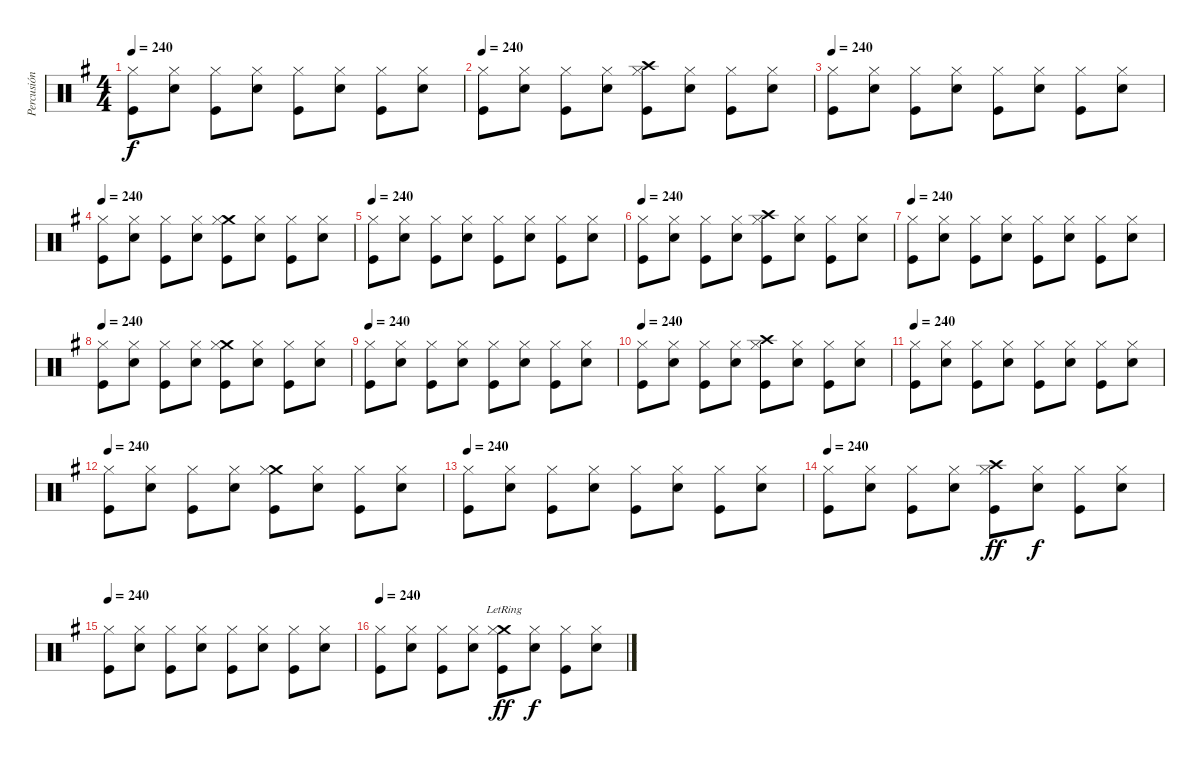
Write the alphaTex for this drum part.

\track ("Percusión" "Percusión") {instrument percussion}
\staff {score}
\articulation defaults
\ts (4 4)
\tempo 240
\clef neutral
\ks g
("Hi-Hat (closed)" "Kick (hit)").8{dy f} ("Hi-Hat (closed)" "Snare (hit) 2").8 ("Hi-Hat (closed)" "Kick (hit)").8 ("Hi-Hat (closed)" "Snare (hit) 2").8 ("Hi-Hat (closed)" "Kick (hit)").8 ("Hi-Hat (closed)" "Snare (hit) 2").8 ("Hi-Hat (closed)" "Kick (hit)").8 ("Hi-Hat (closed)" "Snare (hit) 2").8 |
\tempo 240
("Hi-Hat (closed)" "Kick (hit)").8 ("Hi-Hat (closed)" "Snare (hit) 2").8 ("Hi-Hat (closed)" "Kick (hit)").8 ("Hi-Hat (closed)" "Snare (hit) 2").8 ("Crash high (hit)" "Hi-Hat (closed)" "Kick (hit)").8 ("Hi-Hat (closed)" "Snare (hit) 2").8 ("Hi-Hat (closed)" "Kick (hit)").8 ("Hi-Hat (closed)" "Snare (hit) 2").8 |
\tempo 240
("Hi-Hat (closed)" "Kick (hit)").8 ("Hi-Hat (closed)" "Snare (hit) 2").8 ("Hi-Hat (closed)" "Kick (hit)").8 ("Hi-Hat (closed)" "Snare (hit) 2").8 ("Hi-Hat (closed)" "Kick (hit)").8 ("Hi-Hat (closed)" "Snare (hit) 2").8 ("Hi-Hat (closed)" "Kick (hit)").8 ("Hi-Hat (closed)" "Snare (hit) 2").8 |
\tempo 240
("Hi-Hat (closed)" "Kick (hit)").8 ("Hi-Hat (closed)" "Snare (hit) 2").8 ("Hi-Hat (closed)" "Kick (hit)").8 ("Hi-Hat (closed)" "Snare (hit) 2").8 ("Crash medium (hit)" "Hi-Hat (closed)" "Kick (hit)").8 ("Hi-Hat (closed)" "Snare (hit) 2").8 ("Hi-Hat (closed)" "Kick (hit)").8 ("Hi-Hat (closed)" "Snare (hit) 2").8 |
\tempo 240
("Hi-Hat (closed)" "Kick (hit)").8 ("Hi-Hat (closed)" "Snare (hit) 2").8 ("Hi-Hat (closed)" "Kick (hit)").8 ("Hi-Hat (closed)" "Snare (hit) 2").8 ("Hi-Hat (closed)" "Kick (hit)").8 ("Hi-Hat (closed)" "Snare (hit) 2").8 ("Hi-Hat (closed)" "Kick (hit)").8 ("Hi-Hat (closed)" "Snare (hit) 2").8 |
\tempo 240
("Hi-Hat (closed)" "Kick (hit)").8 ("Hi-Hat (closed)" "Snare (hit) 2").8 ("Hi-Hat (closed)" "Kick (hit)").8 ("Hi-Hat (closed)" "Snare (hit) 2").8 ("Crash high (hit)" "Hi-Hat (closed)" "Kick (hit)").8 ("Hi-Hat (closed)" "Snare (hit) 2").8 ("Hi-Hat (closed)" "Kick (hit)").8 ("Hi-Hat (closed)" "Snare (hit) 2").8 |
\tempo 240
("Hi-Hat (closed)" "Kick (hit)").8 ("Hi-Hat (closed)" "Snare (hit) 2").8 ("Hi-Hat (closed)" "Kick (hit)").8 ("Hi-Hat (closed)" "Snare (hit) 2").8 ("Hi-Hat (closed)" "Kick (hit)").8 ("Hi-Hat (closed)" "Snare (hit) 2").8 ("Hi-Hat (closed)" "Kick (hit)").8 ("Hi-Hat (closed)" "Snare (hit) 2").8 |
\tempo 240
("Hi-Hat (closed)" "Kick (hit)").8 ("Hi-Hat (closed)" "Snare (hit) 2").8 ("Hi-Hat (closed)" "Kick (hit)").8 ("Hi-Hat (closed)" "Snare (hit) 2").8 ("Crash medium (hit)" "Hi-Hat (closed)" "Kick (hit)").8 ("Hi-Hat (closed)" "Snare (hit) 2").8 ("Hi-Hat (closed)" "Kick (hit)").8 ("Hi-Hat (closed)" "Snare (hit) 2").8 |
\tempo 240
("Hi-Hat (closed)" "Kick (hit)").8 ("Hi-Hat (closed)" "Snare (hit) 2").8 ("Hi-Hat (closed)" "Kick (hit)").8 ("Hi-Hat (closed)" "Snare (hit) 2").8 ("Hi-Hat (closed)" "Kick (hit)").8 ("Hi-Hat (closed)" "Snare (hit) 2").8 ("Hi-Hat (closed)" "Kick (hit)").8 ("Hi-Hat (closed)" "Snare (hit) 2").8 |
\tempo 240
("Hi-Hat (closed)" "Kick (hit)").8 ("Hi-Hat (closed)" "Snare (hit) 2").8 ("Hi-Hat (closed)" "Kick (hit)").8 ("Hi-Hat (closed)" "Snare (hit) 2").8 ("Crash high (hit)" "Hi-Hat (closed)" "Kick (hit)").8 ("Hi-Hat (closed)" "Snare (hit) 2").8 ("Hi-Hat (closed)" "Kick (hit)").8 ("Hi-Hat (closed)" "Snare (hit) 2").8 |
\tempo 240
("Hi-Hat (closed)" "Kick (hit)").8 ("Hi-Hat (closed)" "Snare (hit) 2").8 ("Hi-Hat (closed)" "Kick (hit)").8 ("Hi-Hat (closed)" "Snare (hit) 2").8 ("Hi-Hat (closed)" "Kick (hit)").8 ("Hi-Hat (closed)" "Snare (hit) 2").8 ("Hi-Hat (closed)" "Kick (hit)").8 ("Hi-Hat (closed)" "Snare (hit) 2").8 |
\tempo 240
("Hi-Hat (closed)" "Kick (hit)").8 ("Hi-Hat (closed)" "Snare (hit) 2").8 ("Hi-Hat (closed)" "Kick (hit)").8 ("Hi-Hat (closed)" "Snare (hit) 2").8 ("Crash medium (hit)" "Hi-Hat (closed)" "Kick (hit)").8 ("Hi-Hat (closed)" "Snare (hit) 2").8 ("Hi-Hat (closed)" "Kick (hit)").8 ("Hi-Hat (closed)" "Snare (hit) 2").8 |
\tempo 240
("Hi-Hat (closed)" "Kick (hit)").8 ("Hi-Hat (closed)" "Snare (hit) 2").8 ("Hi-Hat (closed)" "Kick (hit)").8 ("Hi-Hat (closed)" "Snare (hit) 2").8 ("Hi-Hat (closed)" "Kick (hit)").8 ("Hi-Hat (closed)" "Snare (hit) 2").8 ("Hi-Hat (closed)" "Kick (hit)").8 ("Hi-Hat (closed)" "Snare (hit) 2").8 |
\tempo 240
("Hi-Hat (closed)" "Kick (hit)").8 ("Hi-Hat (closed)" "Snare (hit) 2").8 ("Hi-Hat (closed)" "Kick (hit)").8 ("Hi-Hat (closed)" "Snare (hit) 2").8 ("Crash high (hit)" "Hi-Hat (closed)" "Kick (hit)").8{dy ff} ("Hi-Hat (closed)" "Snare (hit) 2").8{dy f} ("Hi-Hat (closed)" "Kick (hit)").8 ("Hi-Hat (closed)" "Snare (hit) 2").8 |
\tempo 240
("Hi-Hat (closed)" "Kick (hit)").8 ("Hi-Hat (closed)" "Snare (hit) 2").8 ("Hi-Hat (closed)" "Kick (hit)").8 ("Hi-Hat (closed)" "Snare (hit) 2").8 ("Hi-Hat (closed)" "Kick (hit)").8 ("Hi-Hat (closed)" "Snare (hit) 2").8 ("Hi-Hat (closed)" "Kick (hit)").8 ("Hi-Hat (closed)" "Snare (hit) 2").8 |
\tempo 240
("Hi-Hat (closed)" "Kick (hit)").8 ("Hi-Hat (closed)" "Snare (hit) 2").8 ("Hi-Hat (closed)" "Kick (hit)").8 ("Hi-Hat (closed)" "Snare (hit) 2").8 ("Crash medium (hit)"{lr} "Hi-Hat (closed)" "Kick (hit)").8{dy ff} ("Hi-Hat (closed)" "Snare (hit) 2").8{dy f} ("Hi-Hat (closed)" "Kick (hit)").8 ("Hi-Hat (closed)" "Snare (hit) 2").8
